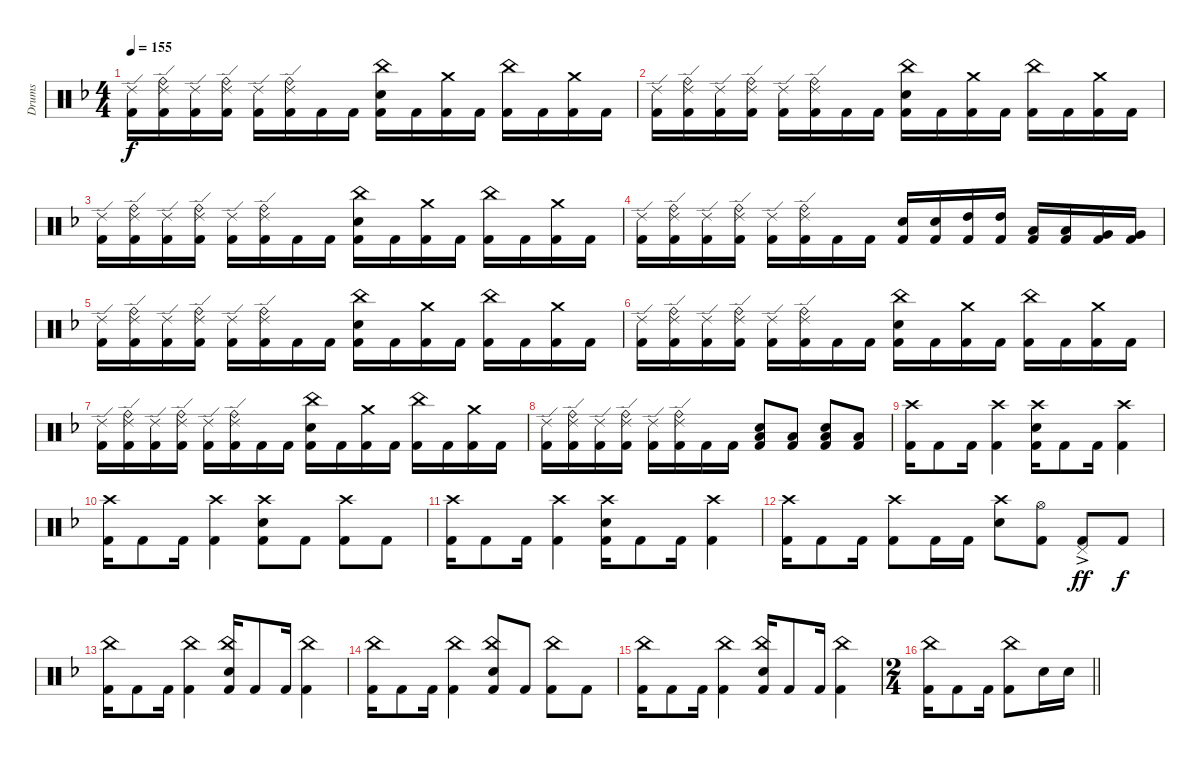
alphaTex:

\track ("Drums" "Drums") {instrument percussion}
\staff {score}
\articulation defaults
\ts (4 4)
\tempo 155
\clef neutral
\ks f
("Ride (edge) 2" "Kick (hit) 2").16{dy f} ("Ride (bell)" "Ride (edge) 2" "Kick (hit) 2").16 ("Ride (edge) 2" "Kick (hit) 2").16 ("Ride (bell)" "Ride (edge) 2" "Kick (hit) 2").16 ("Ride (edge) 2" "Kick (hit) 2").16 ("Ride (bell)" "Ride (edge) 2" "Kick (hit) 2").16 "Kick (hit) 2".16 "Kick (hit) 2".16 ("China (hit)" "Electric Snare (hit)" "Kick (hit) 2").16 "Kick (hit) 2".16 ("Crash medium (hit)" "Kick (hit) 2").16 "Kick (hit) 2".16 ("China (hit)" "Kick (hit) 2").16 "Kick (hit) 2".16 ("Crash medium (hit)" "Kick (hit) 2").16 "Kick (hit) 2".16 |
("Ride (edge) 2" "Kick (hit) 2").16 ("Ride (bell)" "Ride (edge) 2" "Kick (hit) 2").16 ("Ride (edge) 2" "Kick (hit) 2").16 ("Ride (bell)" "Ride (edge) 2" "Kick (hit) 2").16 ("Ride (edge) 2" "Kick (hit) 2").16 ("Ride (bell)" "Ride (edge) 2" "Kick (hit) 2").16 "Kick (hit) 2".16 "Kick (hit) 2".16 ("China (hit)" "Electric Snare (hit)" "Kick (hit) 2").16 "Kick (hit) 2".16 ("Crash medium (hit)" "Kick (hit) 2").16 "Kick (hit) 2".16 ("China (hit)" "Kick (hit) 2").16 "Kick (hit) 2".16 ("Crash medium (hit)" "Kick (hit) 2").16 "Kick (hit) 2".16 |
("Ride (edge) 2" "Kick (hit) 2").16 ("Ride (bell)" "Ride (edge) 2" "Kick (hit) 2").16 ("Ride (edge) 2" "Kick (hit) 2").16 ("Ride (bell)" "Ride (edge) 2" "Kick (hit) 2").16 ("Ride (edge) 2" "Kick (hit) 2").16 ("Ride (bell)" "Ride (edge) 2" "Kick (hit) 2").16 "Kick (hit) 2".16 "Kick (hit) 2".16 ("China (hit)" "Electric Snare (hit)" "Kick (hit) 2").16 "Kick (hit) 2".16 ("Crash medium (hit)" "Kick (hit) 2").16 "Kick (hit) 2".16 ("China (hit)" "Kick (hit) 2").16 "Kick (hit) 2".16 ("Crash medium (hit)" "Kick (hit) 2").16 "Kick (hit) 2".16 |
("Ride (edge) 2" "Kick (hit) 2").16 ("Ride (bell)" "Ride (edge) 2" "Kick (hit) 2").16 ("Ride (edge) 2" "Kick (hit) 2").16 ("Ride (bell)" "Ride (edge) 2" "Kick (hit) 2").16 ("Ride (edge) 2" "Kick (hit) 2").16 ("Ride (bell)" "Ride (edge) 2" "Kick (hit) 2").16 "Kick (hit) 2".16 "Kick (hit) 2".16 ("Electric Snare (hit)" "Kick (hit) 2").16 ("Electric Snare (hit)" "Kick (hit) 2").16 ("High Tom (hit)" "Kick (hit) 2").16 ("High Tom (hit)" "Kick (hit) 2").16 ("Low Tom (hit)" "Kick (hit) 2").16 ("Low Tom (hit)" "Kick (hit) 2").16 ("Very Low Tom (hit)" "Kick (hit) 2").16 ("Very Low Tom (hit)" "Kick (hit) 2").16 |
("Ride (edge) 2" "Kick (hit) 2").16 ("Ride (bell)" "Ride (edge) 2" "Kick (hit) 2").16 ("Ride (edge) 2" "Kick (hit) 2").16 ("Ride (bell)" "Ride (edge) 2" "Kick (hit) 2").16 ("Ride (edge) 2" "Kick (hit) 2").16 ("Ride (bell)" "Ride (edge) 2" "Kick (hit) 2").16 "Kick (hit) 2".16 "Kick (hit) 2".16 ("China (hit)" "Electric Snare (hit)" "Kick (hit) 2").16 "Kick (hit) 2".16 ("Crash medium (hit)" "Kick (hit) 2").16 "Kick (hit) 2".16 ("China (hit)" "Kick (hit) 2").16 "Kick (hit) 2".16 ("Crash medium (hit)" "Kick (hit) 2").16 "Kick (hit) 2".16 |
("Ride (edge) 2" "Kick (hit) 2").16 ("Ride (bell)" "Ride (edge) 2" "Kick (hit) 2").16 ("Ride (edge) 2" "Kick (hit) 2").16 ("Ride (bell)" "Ride (edge) 2" "Kick (hit) 2").16 ("Ride (edge) 2" "Kick (hit) 2").16 ("Ride (bell)" "Ride (edge) 2" "Kick (hit) 2").16 "Kick (hit) 2".16 "Kick (hit) 2".16 ("China (hit)" "Electric Snare (hit)" "Kick (hit) 2").16 "Kick (hit) 2".16 ("Crash medium (hit)" "Kick (hit) 2").16 "Kick (hit) 2".16 ("China (hit)" "Kick (hit) 2").16 "Kick (hit) 2".16 ("Crash medium (hit)" "Kick (hit) 2").16 "Kick (hit) 2".16 |
("Ride (edge) 2" "Kick (hit) 2").16 ("Ride (bell)" "Ride (edge) 2" "Kick (hit) 2").16 ("Ride (edge) 2" "Kick (hit) 2").16 ("Ride (bell)" "Ride (edge) 2" "Kick (hit) 2").16 ("Ride (edge) 2" "Kick (hit) 2").16 ("Ride (bell)" "Ride (edge) 2" "Kick (hit) 2").16 "Kick (hit) 2".16 "Kick (hit) 2".16 ("China (hit)" "Electric Snare (hit)" "Kick (hit) 2").16 "Kick (hit) 2".16 ("Crash medium (hit)" "Kick (hit) 2").16 "Kick (hit) 2".16 ("China (hit)" "Kick (hit) 2").16 "Kick (hit) 2".16 ("Crash medium (hit)" "Kick (hit) 2").16 "Kick (hit) 2".16 |
("Ride (edge) 2" "Kick (hit) 2").16 ("Ride (bell)" "Ride (edge) 2" "Kick (hit) 2").16 ("Ride (edge) 2" "Kick (hit) 2").16 ("Ride (bell)" "Ride (edge) 2" "Kick (hit) 2").16 ("Ride (edge) 2" "Kick (hit) 2").16 ("Ride (bell)" "Ride (edge) 2" "Kick (hit) 2").16 "Kick (hit) 2".16 "Kick (hit) 2".16 ("Low Tom (hit)" "Electric Snare (hit)" "Kick (hit) 2").8 ("Low Tom (hit)" "Kick (hit) 2").8 ("Low Tom (hit)" "Electric Snare (hit)" "Kick (hit) 2").8 ("Low Tom (hit)" "Kick (hit) 2").8 |
("Crash high (hit)" "Kick (hit) 2").16 "Kick (hit) 2".8 "Kick (hit) 2".16 ("Crash high (hit)" "Kick (hit) 2").4 ("Crash high (hit)" "Electric Snare (hit)" "Kick (hit) 2").16 "Kick (hit) 2".8 "Kick (hit) 2".16 ("Crash high (hit)" "Kick (hit) 2").4 |
("Crash high (hit)" "Kick (hit) 2").16 "Kick (hit) 2".8 "Kick (hit) 2".16 ("Crash high (hit)" "Kick (hit) 2").4 ("Crash high (hit)" "Electric Snare (hit)" "Kick (hit) 2").8 "Kick (hit) 2".8 ("Crash high (hit)" "Kick (hit) 2").8 "Kick (hit) 2".8 |
("Crash high (hit)" "Kick (hit) 2").16 "Kick (hit) 2".8 "Kick (hit) 2".16 ("Crash high (hit)" "Kick (hit) 2").4 ("Crash high (hit)" "Electric Snare (hit)" "Kick (hit) 2").16 "Kick (hit) 2".8 "Kick (hit) 2".16 ("Crash high (hit)" "Kick (hit) 2").4 |
("Crash high (hit)" "Kick (hit) 2").16 "Kick (hit) 2".8 "Kick (hit) 2".16 ("Crash high (hit)" "Kick (hit) 2").8 "Kick (hit) 2".16 "Kick (hit) 2".16 ("Crash high (hit)" "Electric Snare (hit)").8 ("Hi-Hat (open)" "Kick (hit) 2").8 ("Pedal Hi-Hat (hit)"{ac} "Kick (hit) 2").8{dy ff} "Kick (hit) 2".8{dy f} |
("China (hit)" "Kick (hit) 2").16 "Kick (hit) 2".8 "Kick (hit) 2".16 ("China (hit)" "Kick (hit) 2").4 ("China (hit)" "Electric Snare (hit)" "Kick (hit) 2").16 "Kick (hit) 2".8 "Kick (hit) 2".16 ("China (hit)" "Kick (hit) 2").4 |
("China (hit)" "Kick (hit) 2").16 "Kick (hit) 2".8 "Kick (hit) 2".16 ("China (hit)" "Kick (hit) 2").4 ("China (hit)" "Electric Snare (hit)" "Kick (hit) 2").8 "Kick (hit) 2".8 ("China (hit)" "Kick (hit) 2").8 "Kick (hit) 2".8 |
("China (hit)" "Kick (hit) 2").16 "Kick (hit) 2".8 "Kick (hit) 2".16 ("China (hit)" "Kick (hit) 2").4 ("China (hit)" "Electric Snare (hit)" "Kick (hit) 2").16 "Kick (hit) 2".8 "Kick (hit) 2".16 ("China (hit)" "Kick (hit) 2").4 |
\ts (2 4)
\barLineRight lightlight
("China (hit)" "Kick (hit) 2").16 "Kick (hit) 2".8 "Kick (hit) 2".16 ("China (hit)" "Kick (hit) 2").8 "Electric Snare (hit)".16 "Electric Snare (hit)".16
